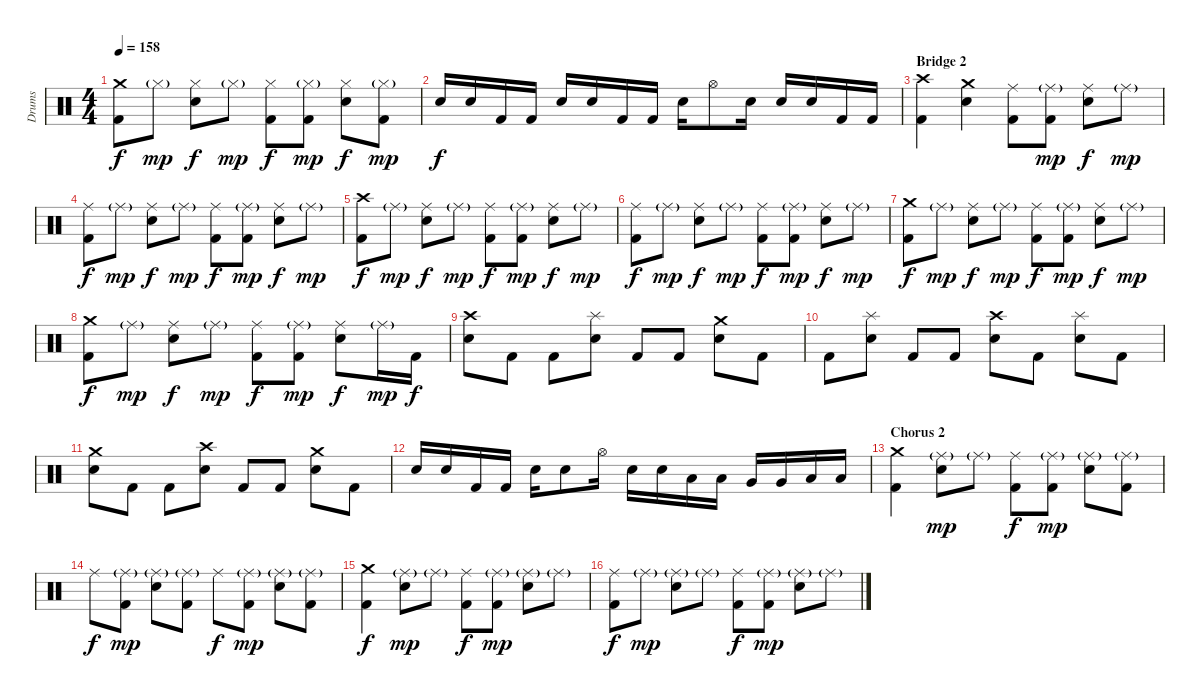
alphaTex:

\track ("Drums" "Drums") {instrument percussion}
\staff {score}
\articulation defaults
\ts (4 4)
\tempo 158
\clef neutral
\ks c
("Crash medium (hit)" "Kick (hit) 2").8{dy f} "Hi-Hat (closed)"{g}.8{dy mp} ("Hi-Hat (closed)" "Snare (hit) 2").8{dy f} "Hi-Hat (closed)"{g}.8{dy mp} ("Hi-Hat (closed)" "Kick (hit) 2").8{dy f} ("Hi-Hat (closed)"{g} "Kick (hit) 2").8{dy mp} ("Hi-Hat (closed)" "Snare (hit) 2").8{dy f} ("Hi-Hat (closed)"{g} "Kick (hit) 2").8{dy mp} |
"Snare (hit) 2".16{dy f} "Snare (hit) 2".16 "Kick (hit) 2".16 "Kick (hit) 2".16 "Snare (hit) 2".16 "Snare (hit) 2".16 "Kick (hit) 2".16 "Kick (hit) 2".16 "Snare (hit) 2".16 "Hi-Hat (open)".8 "Snare (hit) 2".16 "Snare (hit) 2".16 "Snare (hit) 2".16 "Kick (hit) 2".16 "Kick (hit) 2".16 |
\section ("" "Bridge 2")
("Crash high (hit)" "Kick (hit) 2").4 ("Crash medium (hit)" "Snare (hit) 2").4 ("Ride (middle)" "Kick (hit) 2").8 ("Ride (middle)"{g} "Kick (hit) 2").8{dy mp} ("Ride (middle)" "Snare (hit) 2").8{dy f} "Ride (middle)"{g}.8{dy mp} |
("Ride (middle)" "Kick (hit) 2").8{dy f} "Ride (middle)"{g}.8{dy mp} ("Ride (middle)" "Snare (hit) 2").8{dy f} "Ride (middle)"{g}.8{dy mp} ("Ride (middle)" "Kick (hit) 2").8{dy f} ("Ride (middle)"{g} "Kick (hit) 2").8{dy mp} ("Ride (middle)" "Snare (hit) 2").8{dy f} "Ride (middle)"{g}.8{dy mp} |
("Crash high (hit)" "Kick (hit) 2").8{dy f} "Ride (middle)"{g}.8{dy mp} ("Ride (middle)" "Snare (hit) 2").8{dy f} "Ride (middle)"{g}.8{dy mp} ("Ride (middle)" "Kick (hit) 2").8{dy f} ("Ride (middle)"{g} "Kick (hit) 2").8{dy mp} ("Ride (middle)" "Snare (hit) 2").8{dy f} "Ride (middle)"{g}.8{dy mp} |
("Ride (middle)" "Kick (hit) 2").8{dy f} "Ride (middle)"{g}.8{dy mp} ("Ride (middle)" "Snare (hit) 2").8{dy f} "Ride (middle)"{g}.8{dy mp} ("Ride (middle)" "Kick (hit) 2").8{dy f} ("Ride (middle)"{g} "Kick (hit) 2").8{dy mp} ("Ride (middle)" "Snare (hit) 2").8{dy f} "Ride (middle)"{g}.8{dy mp} |
("Crash medium (hit)" "Kick (hit) 2").8{dy f} "Ride (middle)"{g}.8{dy mp} ("Ride (middle)" "Snare (hit) 2").8{dy f} "Ride (middle)"{g}.8{dy mp} ("Ride (middle)" "Kick (hit) 2").8{dy f} ("Ride (middle)"{g} "Kick (hit) 2").8{dy mp} ("Ride (middle)" "Snare (hit) 2").8{dy f} "Ride (middle)"{g}.8{dy mp} |
("Crash medium (hit)" "Kick (hit) 2").8{dy f} "Ride (middle)"{g}.8{dy mp} ("Ride (middle)" "Snare (hit) 2").8{dy f} "Ride (middle)"{g}.8{dy mp} ("Ride (middle)" "Kick (hit) 2").8{dy f} ("Ride (middle)"{g} "Kick (hit) 2").8{dy mp} ("Ride (middle)" "Snare (hit) 2").8{dy f} "Ride (middle)"{g}.16{dy mp} "Kick (hit) 2".16{dy f} |
("Crash high (hit)" "Snare (hit) 2").8 "Kick (hit) 2".8 "Kick (hit) 2".8 ("Splash (hit)" "Snare (hit) 2").8 "Kick (hit) 2".8 "Kick (hit) 2".8 ("Crash medium (hit)" "Snare (hit) 2").8 "Kick (hit) 2".8 |
"Kick (hit) 2".8 ("Splash (hit)" "Snare (hit) 2").8 "Kick (hit) 2".8 "Kick (hit) 2".8 ("Crash high (hit)" "Snare (hit) 2").8 "Kick (hit) 2".8 ("Splash (hit)" "Snare (hit) 2").8 "Kick (hit) 2".8 |
("Crash medium (hit)" "Snare (hit) 2").8 "Kick (hit) 2".8 "Kick (hit) 2".8 ("Crash high (hit)" "Snare (hit) 2").8 "Kick (hit) 2".8 "Kick (hit) 2".8 ("Crash medium (hit)" "Snare (hit) 2").8 "Kick (hit) 2".8 |
"Snare (hit) 2".16 "Snare (hit) 2".16 "Kick (hit) 2".16 "Kick (hit) 2".16 "Snare (hit) 2".16 "Snare (hit) 2".8 "Hi-Hat (open)".16 "Snare (hit) 2".16 "Snare (hit) 2".16 "Low Tom (hit)".16 "Low Tom (hit)".16 "Very Low Tom (hit)".16 "Very Low Tom (hit)".16 "Low Floor Tom (hit)".16 "Low Floor Tom (hit)".16 |
\section ("" "Chorus 2")
("Crash medium (hit)" "Kick (hit) 2").4 ("Ride (middle)"{g} "Snare (hit) 2").8{dy mp} "Ride (middle)"{g}.8 ("Ride (middle)" "Kick (hit) 2").8{dy f} ("Ride (middle)"{g} "Kick (hit) 2").8{dy mp} ("Ride (middle)"{g} "Snare (hit) 2").8 ("Ride (middle)"{g} "Kick (hit) 2").8 |
"Ride (middle)".8{dy f} ("Ride (middle)"{g} "Kick (hit) 2").8{dy mp} ("Ride (middle)"{g} "Snare (hit) 2").8 ("Ride (middle)"{g} "Kick (hit) 2").8 "Ride (middle)".8{dy f} ("Ride (middle)"{g} "Kick (hit) 2").8{dy mp} ("Ride (middle)"{g} "Snare (hit) 2").8 ("Ride (middle)"{g} "Kick (hit) 2").8 |
("Crash medium (hit)" "Kick (hit) 2").4{dy f} ("Ride (middle)"{g} "Snare (hit) 2").8{dy mp} "Ride (middle)"{g}.8 ("Ride (middle)" "Kick (hit) 2").8{dy f} ("Ride (middle)"{g} "Kick (hit) 2").8{dy mp} ("Ride (middle)"{g} "Snare (hit) 2").8 "Ride (middle)"{g}.8 |
("Ride (middle)" "Kick (hit) 2").8{dy f} "Ride (middle)"{g}.8{dy mp} ("Ride (middle)"{g} "Snare (hit) 2").8 "Ride (middle)"{g}.8 ("Ride (middle)" "Kick (hit) 2").8{dy f} ("Ride (middle)"{g} "Kick (hit) 2").8{dy mp} ("Ride (middle)"{g} "Snare (hit) 2").8 "Ride (middle)"{g}.8
